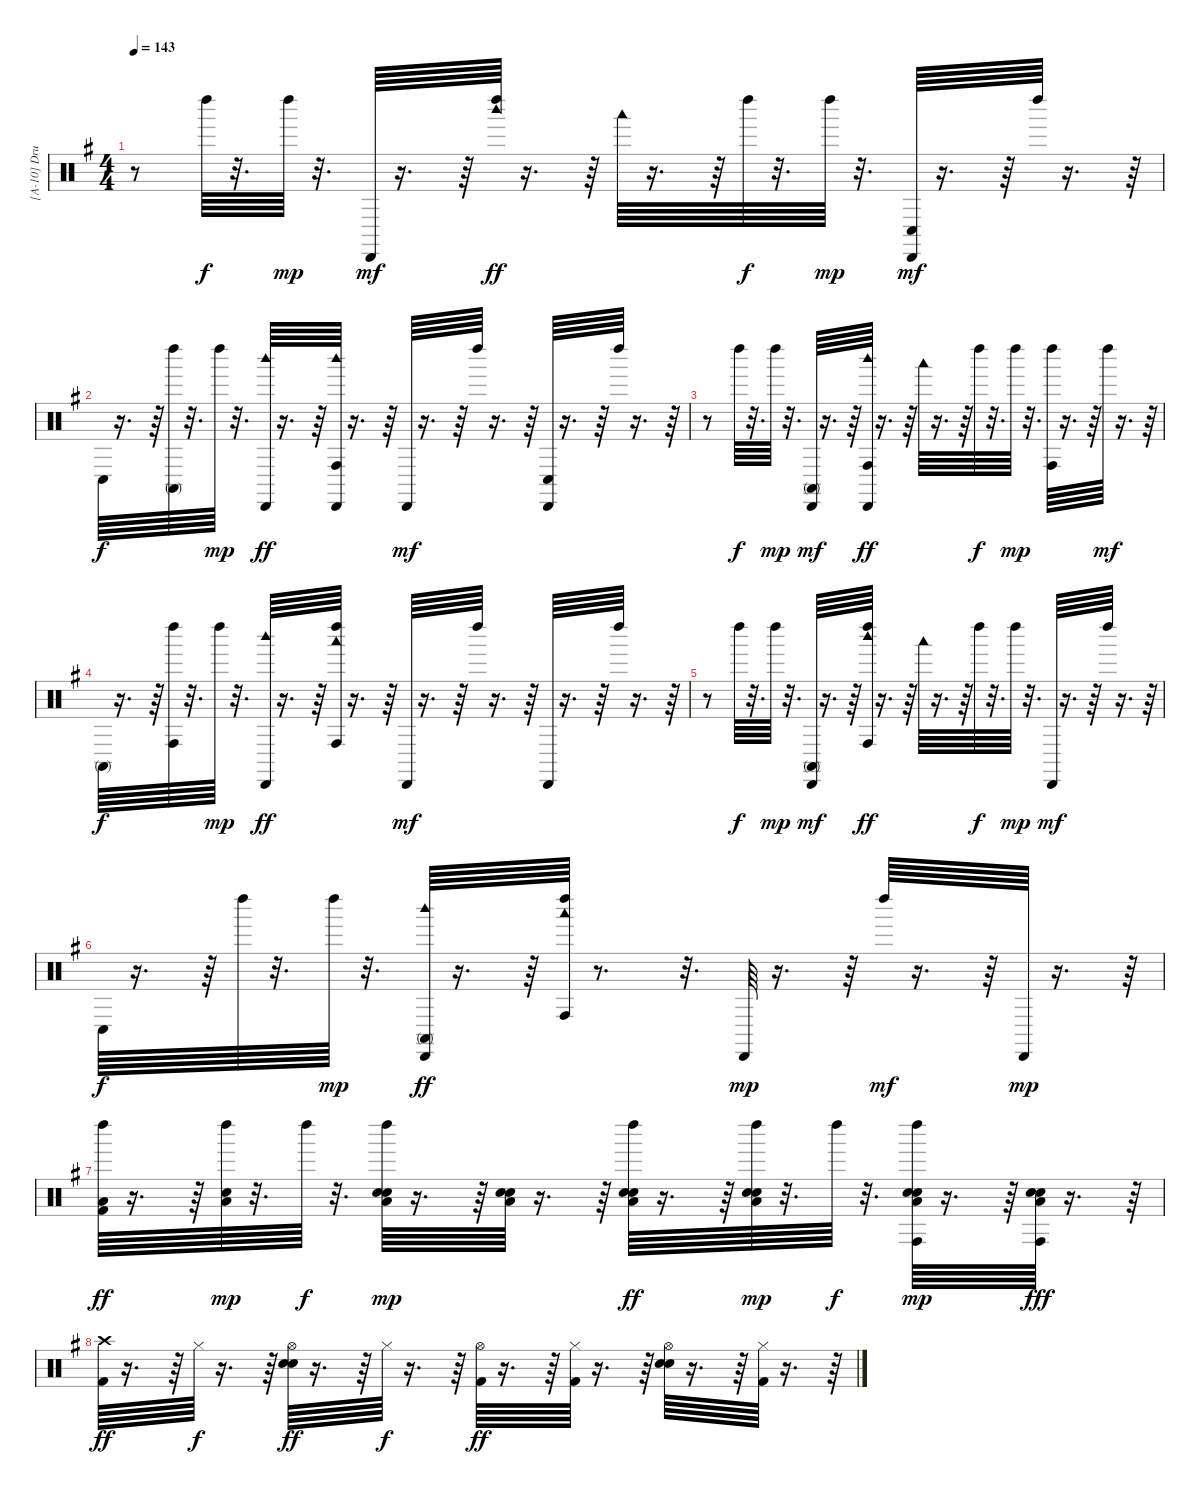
\track ("[A-10] Drums" "[A-10] Dru") {instrument percussion}
\staff {score}
\articulation defaults
\ts (4 4)
\tempo 143
\clef neutral
\ks g
r.8{dy mp} "Left Maraca (hit)".64{dy f} r.32{d} "Left Maraca (hit)".64{dy mp} r.32{d} "Cabasa (hit)".64{dy mf} r.16{d} r.64 ("Left Maraca (hit)" "Woodblock high (hit)").64{dy ff} r.16{d} r.64 "Woodblock low (hit)".64 r.16{d} r.64 "Left Maraca (hit)".64{dy f} r.32{d} "Left Maraca (hit)".64{dy mp} r.32{d} ("Conga low (hit)" "Cabasa (hit)").64{dy mf} r.16{d} r.64 "Left Maraca (hit)".64 r.16{d} r.64 |
"Conga low (hit)".64{dy f} r.16{d} r.64 ("Conga high (mute)" "Left Maraca (hit)").64 r.32{d} "Left Maraca (hit)".64{dy mp} r.32{d} ("Cabasa (hit)" "Woodblock high (hit)").64{dy ff} r.16{d} r.64 ("Conga high (hit)" "Cabasa (hit)" "Woodblock high (hit)").64 r.16{d} r.64 "Cabasa (hit)".64{dy mf} r.16{d} r.64 "Left Maraca (hit)".64 r.16{d} r.64 ("Conga low (hit)" "Cabasa (hit)").64 r.16{d} r.64 "Left Maraca (hit)".64 r.16{d} r.64 |
r.8 "Left Maraca (hit)".64{dy f} r.32{d} "Left Maraca (hit)".64{dy mp} r.32{d} ("Conga high (mute)" "Cabasa (hit)").64{dy mf} r.16{d} r.64 ("Conga high (hit)" "Cabasa (hit)" "Woodblock high (hit)").64{dy ff} r.16{d} r.64 "Woodblock low (hit)".64 r.16{d} r.64 "Left Maraca (hit)".64{dy f} r.32{d} "Left Maraca (hit)".64{dy mp} r.32{d} ("Conga high (hit)" "Left Maraca (hit)").64 r.16{d} r.64 "Left Maraca (hit)".64{dy mf} r.16{d} r.64 |
"Conga high (mute)".64{dy f} r.16{d} r.64 ("Conga high (hit)" "Left Maraca (hit)").64 r.32{d} "Left Maraca (hit)".64{dy mp} r.32{d} ("Cabasa (hit)" "Woodblock high (hit)").64{dy ff} r.16{d} r.64 ("Conga high (hit)" "Left Maraca (hit)" "Woodblock low (hit)").64 r.16{d} r.64 "Cabasa (hit)".64{dy mf} r.16{d} r.64 "Left Maraca (hit)".64 r.16{d} r.64 "Cabasa (hit)".64 r.16{d} r.64 "Left Maraca (hit)".64 r.16{d} r.64 |
r.8 "Left Maraca (hit)".64{dy f} r.32{d} "Left Maraca (hit)".64{dy mp} r.32{d} ("Conga high (mute)" "Cabasa (hit)").64{dy mf} r.16{d} r.64 ("Conga high (hit)" "Left Maraca (hit)" "Woodblock high (hit)").64{dy ff} r.16{d} r.64 "Woodblock low (hit)".64 r.16{d} r.64 "Left Maraca (hit)".64{dy f} r.32{d} "Left Maraca (hit)".64{dy mp} r.32{d} "Cabasa (hit)".64{dy mf} r.16{d} r.64 "Left Maraca (hit)".64 r.16{d} r.64 |
"Conga low (hit)".64{dy f} r.16{d} r.64 "Left Maraca (hit)".64 r.32{d} "Left Maraca (hit)".64{dy mp} r.32{d} ("Conga high (mute)" "Cabasa (hit)" "Woodblock high (hit)").64{dy ff} r.16{d} r.64 ("Conga high (hit)" "Left Maraca (hit)" "Woodblock low (hit)").64 r.8{d} r.32{d} "Cabasa (hit)".64{dy mp} r.16{d} r.64 "Left Maraca (hit)".64{dy mf} r.16{d} r.64 "Cabasa (hit)".64{dy mp} r.16{d} r.64 |
("Low Floor Tom (hit)" "Kick (hit) 2" "Left Maraca (hit)").64{dy ff volume 13} r.16{d} r.64 ("Low Floor Tom (hit)" "Snare (hit) 2" "Left Maraca (hit)").64{dy mp} r.32{d} "Left Maraca (hit)".64{dy f} r.32{d} ("Low Floor Tom (hit)" "Electric Snare (hit)" "Snare (hit) 2" "Left Maraca (hit)").64{dy mp} r.16{d} r.64 ("Low Floor Tom (hit)" "Electric Snare (hit)" "Snare (hit) 2").64 r.16{d} r.64 ("Low Floor Tom (hit)" "Electric Snare (hit)" "Snare (hit) 2" "Left Maraca (hit)").64{dy ff} r.16{d} r.64 ("Low Floor Tom (hit)" "Electric Snare (hit)" "Snare (hit) 2" "Left Maraca (hit)").64{dy mp} r.32{d} "Left Maraca (hit)".64{dy f} r.32{d} ("Conga high (hit)" "Low Floor Tom (hit)" "Electric Snare (hit)" "Snare (hit) 2" "Left Maraca (hit)").64{dy mp} r.16{d} r.64 ("Conga high (hit)" "Low Floor Tom (hit)" "Electric Snare (hit)" "Snare (hit) 2").64{dy fff} r.16{d} r.64 |
("Crash high (hit)" "Kick (hit) 2").64{dy ff volume 12} r.16{d} r.64 "Hi-Hat (closed)".64{dy f} r.16{d} r.64 ("Hi-Hat (open)" "Electric Snare (hit)" "Snare (hit) 2").64{dy ff} r.16{d} r.64 "Hi-Hat (closed)".64{dy f} r.16{d} r.64 ("Hi-Hat (open)" "Kick (hit) 2").64{dy ff} r.16{d} r.64 ("Hi-Hat (closed)" "Kick (hit) 2").64 r.16{d} r.64 ("Hi-Hat (open)" "Electric Snare (hit)" "Snare (hit) 2").64 r.16{d} r.64 ("Hi-Hat (closed)" "Kick (hit) 2").64 r.16{d} r.64
